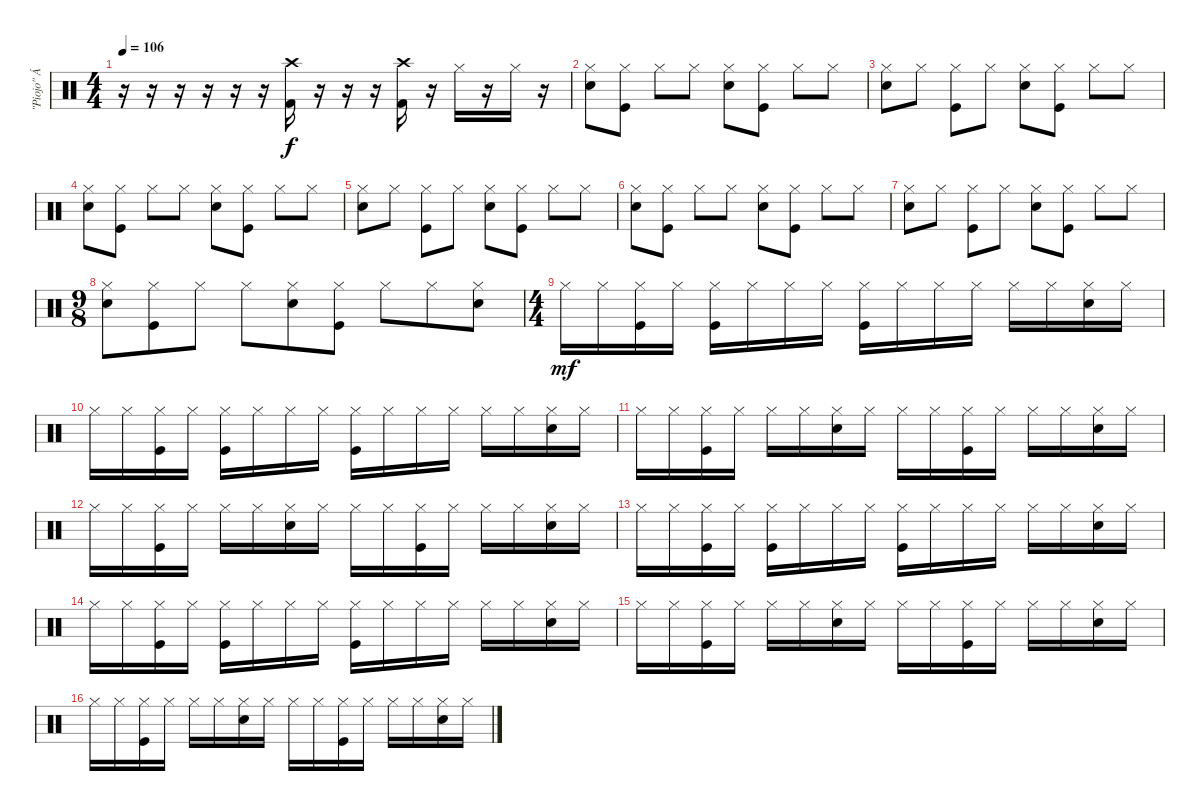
\track (" \"Piojo\" Ávalos" " \"Piojo\" Á") {instrument percussion}
\staff {score}
\articulation defaults
\ts (4 4)
\tempo 106
\clef neutral
\ks c
r.16{dy mf} r.16 r.16 r.16 r.16 r.16 ("Crash high (hit)" "Kick (hit) 2").16{dy f} r.16 r.16 r.16 ("Crash high (hit)" "Kick (hit) 2").16 r.16 "Hi-Hat (closed)".16 r.16 "Hi-Hat (closed)".16 r.16 |
("Hi-Hat (closed)" "Electric Snare (hit)").8 ("Hi-Hat (closed)" "Kick (hit)").8 "Hi-Hat (closed)".8 "Hi-Hat (closed)".8 ("Hi-Hat (closed)" "Electric Snare (hit)").8 ("Hi-Hat (closed)" "Kick (hit)").8 "Hi-Hat (closed)".8 "Hi-Hat (closed)".8 |
("Hi-Hat (closed)" "Electric Snare (hit)").8 "Hi-Hat (closed)".8 ("Hi-Hat (closed)" "Kick (hit)").8 "Hi-Hat (closed)".8 ("Hi-Hat (closed)" "Electric Snare (hit)").8 ("Hi-Hat (closed)" "Kick (hit)").8 "Hi-Hat (closed)".8 "Hi-Hat (closed)".8 |
("Hi-Hat (closed)" "Electric Snare (hit)").8 ("Hi-Hat (closed)" "Kick (hit)").8 "Hi-Hat (closed)".8 "Hi-Hat (closed)".8 ("Hi-Hat (closed)" "Electric Snare (hit)").8 ("Hi-Hat (closed)" "Kick (hit)").8 "Hi-Hat (closed)".8 "Hi-Hat (closed)".8 |
("Hi-Hat (closed)" "Electric Snare (hit)").8 "Hi-Hat (closed)".8 ("Hi-Hat (closed)" "Kick (hit)").8 "Hi-Hat (closed)".8 ("Hi-Hat (closed)" "Electric Snare (hit)").8 ("Hi-Hat (closed)" "Kick (hit)").8 "Hi-Hat (closed)".8 "Hi-Hat (closed)".8 |
("Hi-Hat (closed)" "Electric Snare (hit)").8 ("Hi-Hat (closed)" "Kick (hit)").8 "Hi-Hat (closed)".8 "Hi-Hat (closed)".8 ("Hi-Hat (closed)" "Electric Snare (hit)").8 ("Hi-Hat (closed)" "Kick (hit)").8 "Hi-Hat (closed)".8 "Hi-Hat (closed)".8 |
("Hi-Hat (closed)" "Electric Snare (hit)").8 "Hi-Hat (closed)".8 ("Hi-Hat (closed)" "Kick (hit)").8 "Hi-Hat (closed)".8 ("Hi-Hat (closed)" "Electric Snare (hit)").8 ("Hi-Hat (closed)" "Kick (hit)").8 "Hi-Hat (closed)".8 "Hi-Hat (closed)".8 |
\ts (9 8)
("Hi-Hat (closed)" "Electric Snare (hit)").8 ("Hi-Hat (closed)" "Kick (hit)").8 "Hi-Hat (closed)".8 "Hi-Hat (closed)".8 ("Hi-Hat (closed)" "Electric Snare (hit)").8 ("Hi-Hat (closed)" "Kick (hit)").8 "Hi-Hat (closed)".8 "Hi-Hat (closed)".8 ("Hi-Hat (closed)" "Electric Snare (hit)").8 |
\ts (4 4)
"Hi-Hat (closed)".16{dy mf} "Hi-Hat (closed)".16 ("Hi-Hat (closed)" "Kick (hit)").16 "Hi-Hat (closed)".16 ("Hi-Hat (closed)" "Kick (hit)").16 "Hi-Hat (closed)".16 "Hi-Hat (closed)".16 "Hi-Hat (closed)".16 ("Hi-Hat (closed)" "Kick (hit)").16 "Hi-Hat (closed)".16 "Hi-Hat (closed)".16 "Hi-Hat (closed)".16 "Hi-Hat (closed)".16 "Hi-Hat (closed)".16 ("Hi-Hat (closed)" "Electric Snare (hit)").16 "Hi-Hat (closed)".16 |
"Hi-Hat (closed)".16 "Hi-Hat (closed)".16 ("Hi-Hat (closed)" "Kick (hit)").16 "Hi-Hat (closed)".16 ("Hi-Hat (closed)" "Kick (hit)").16 "Hi-Hat (closed)".16 "Hi-Hat (closed)".16 "Hi-Hat (closed)".16 ("Hi-Hat (closed)" "Kick (hit)").16 "Hi-Hat (closed)".16 "Hi-Hat (closed)".16 "Hi-Hat (closed)".16 "Hi-Hat (closed)".16 "Hi-Hat (closed)".16 ("Hi-Hat (closed)" "Electric Snare (hit)").16 "Hi-Hat (closed)".16 |
"Hi-Hat (closed)".16 "Hi-Hat (closed)".16 ("Hi-Hat (closed)" "Kick (hit)").16 "Hi-Hat (closed)".16 "Hi-Hat (closed)".16 "Hi-Hat (closed)".16 ("Hi-Hat (closed)" "Electric Snare (hit)").16 "Hi-Hat (closed)".16 "Hi-Hat (closed)".16 "Hi-Hat (closed)".16 ("Hi-Hat (closed)" "Kick (hit)").16 "Hi-Hat (closed)".16 "Hi-Hat (closed)".16 "Hi-Hat (closed)".16 ("Hi-Hat (closed)" "Electric Snare (hit)").16 "Hi-Hat (closed)".16 |
"Hi-Hat (closed)".16 "Hi-Hat (closed)".16 ("Hi-Hat (closed)" "Kick (hit)").16 "Hi-Hat (closed)".16 "Hi-Hat (closed)".16 "Hi-Hat (closed)".16 ("Hi-Hat (closed)" "Electric Snare (hit)").16 "Hi-Hat (closed)".16 "Hi-Hat (closed)".16 "Hi-Hat (closed)".16 ("Hi-Hat (closed)" "Kick (hit)").16 "Hi-Hat (closed)".16 "Hi-Hat (closed)".16 "Hi-Hat (closed)".16 ("Hi-Hat (closed)" "Electric Snare (hit)").16 "Hi-Hat (closed)".16 |
"Hi-Hat (closed)".16 "Hi-Hat (closed)".16 ("Hi-Hat (closed)" "Kick (hit)").16 "Hi-Hat (closed)".16 ("Hi-Hat (closed)" "Kick (hit)").16 "Hi-Hat (closed)".16 "Hi-Hat (closed)".16 "Hi-Hat (closed)".16 ("Hi-Hat (closed)" "Kick (hit)").16 "Hi-Hat (closed)".16 "Hi-Hat (closed)".16 "Hi-Hat (closed)".16 "Hi-Hat (closed)".16 "Hi-Hat (closed)".16 ("Hi-Hat (closed)" "Electric Snare (hit)").16 "Hi-Hat (closed)".16 |
"Hi-Hat (closed)".16 "Hi-Hat (closed)".16 ("Hi-Hat (closed)" "Kick (hit)").16 "Hi-Hat (closed)".16 ("Hi-Hat (closed)" "Kick (hit)").16 "Hi-Hat (closed)".16 "Hi-Hat (closed)".16 "Hi-Hat (closed)".16 ("Hi-Hat (closed)" "Kick (hit)").16 "Hi-Hat (closed)".16 "Hi-Hat (closed)".16 "Hi-Hat (closed)".16 "Hi-Hat (closed)".16 "Hi-Hat (closed)".16 ("Hi-Hat (closed)" "Electric Snare (hit)").16 "Hi-Hat (closed)".16 |
"Hi-Hat (closed)".16 "Hi-Hat (closed)".16 ("Hi-Hat (closed)" "Kick (hit)").16 "Hi-Hat (closed)".16 "Hi-Hat (closed)".16 "Hi-Hat (closed)".16 ("Hi-Hat (closed)" "Electric Snare (hit)").16 "Hi-Hat (closed)".16 "Hi-Hat (closed)".16 "Hi-Hat (closed)".16 ("Hi-Hat (closed)" "Kick (hit)").16 "Hi-Hat (closed)".16 "Hi-Hat (closed)".16 "Hi-Hat (closed)".16 ("Hi-Hat (closed)" "Electric Snare (hit)").16 "Hi-Hat (closed)".16 |
"Hi-Hat (closed)".16 "Hi-Hat (closed)".16 ("Hi-Hat (closed)" "Kick (hit)").16 "Hi-Hat (closed)".16 "Hi-Hat (closed)".16 "Hi-Hat (closed)".16 ("Hi-Hat (closed)" "Electric Snare (hit)").16 "Hi-Hat (closed)".16 "Hi-Hat (closed)".16 "Hi-Hat (closed)".16 ("Hi-Hat (closed)" "Kick (hit)").16 "Hi-Hat (closed)".16 "Hi-Hat (closed)".16 "Hi-Hat (closed)".16 ("Hi-Hat (closed)" "Electric Snare (hit)").16 "Hi-Hat (closed)".16
